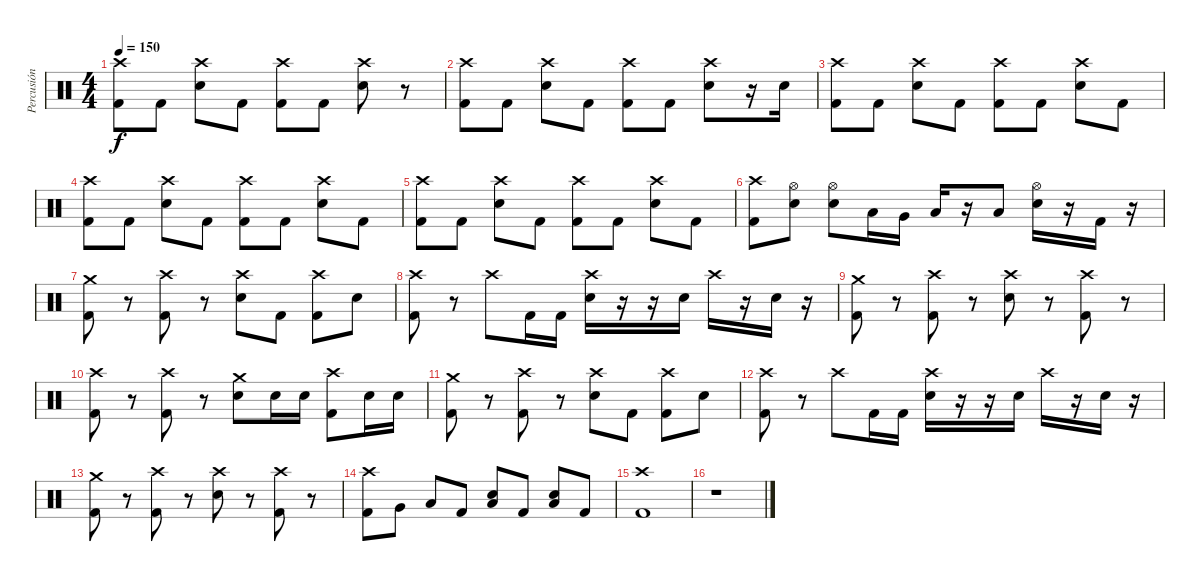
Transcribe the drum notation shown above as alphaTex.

\track ("Percusión" "Percusión") {instrument percussion}
\staff {score}
\articulation defaults
\ts (4 4)
\tempo 150
\clef neutral
\ks c
("Kick (hit) 2" "Crash high (hit)").8{dy f} "Kick (hit) 2".8 ("Electric Snare (hit)" "Crash high (hit)").8 "Kick (hit) 2".8 ("Kick (hit) 2" "Crash high (hit)").8 "Kick (hit) 2".8 ("Electric Snare (hit)" "Crash high (hit)").8 r.8 |
("Kick (hit) 2" "Crash high (hit)").8 "Kick (hit) 2".8 ("Electric Snare (hit)" "Crash high (hit)").8 "Kick (hit) 2".8 ("Kick (hit) 2" "Crash high (hit)").8 "Kick (hit) 2".8 ("Electric Snare (hit)" "Crash high (hit)").8 r.16 "Electric Snare (hit)".16 |
("Kick (hit) 2" "Crash high (hit)").8 "Kick (hit) 2".8 ("Electric Snare (hit)" "Crash high (hit)").8 "Kick (hit) 2".8 ("Kick (hit) 2" "Crash high (hit)").8 "Kick (hit) 2".8 ("Electric Snare (hit)" "Crash high (hit)").8 "Kick (hit) 2".8 |
("Kick (hit) 2" "Crash high (hit)").8 "Kick (hit) 2".8 ("Electric Snare (hit)" "Crash high (hit)").8 "Kick (hit) 2".8 ("Kick (hit) 2" "Crash high (hit)").8 "Kick (hit) 2".8 ("Electric Snare (hit)" "Crash high (hit)").8 "Kick (hit) 2".8 |
("Kick (hit) 2" "Crash high (hit)").8 "Kick (hit) 2".8 ("Electric Snare (hit)" "Crash high (hit)").8 "Kick (hit) 2".8 ("Kick (hit) 2" "Crash high (hit)").8 "Kick (hit) 2".8 ("Electric Snare (hit)" "Crash high (hit)").8 "Kick (hit) 2".8 |
("Kick (hit) 2" "Crash high (hit)").8 ("Electric Snare (hit)" "Hi-Hat (open)").8 ("Electric Snare (hit)" "Hi-Hat (open)").8 "Low Floor Tom (hit)".16 "Very Low Tom (hit)".16 "Low Floor Tom (hit)".16 r.16 "Low Floor Tom (hit)".8 ("Electric Snare (hit)" "Hi-Hat (open)").16 r.16 "Kick (hit) 2".16 r.16 |
("Kick (hit) 2" "Crash medium (hit)").8 r.8 ("Kick (hit) 2" "Crash high (hit)").8 r.8 ("Electric Snare (hit)" "Crash high (hit)").8 "Kick (hit) 2".8 ("Kick (hit) 2" "Crash high (hit)").8 "Electric Snare (hit)".8 |
("Kick (hit) 2" "Crash high (hit)").8 r.8 "Crash high (hit)".8 "Kick (hit) 2".16 "Kick (hit) 2".16 ("Electric Snare (hit)" "Crash high (hit)").16 r.16 r.16 "Electric Snare (hit)".16 "Crash high (hit)".16 r.16 "Electric Snare (hit)".16 r.16 |
("Kick (hit) 2" "Crash medium (hit)").8 r.8 ("Kick (hit) 2" "Crash high (hit)").8 r.8 ("Electric Snare (hit)" "Crash high (hit)").8 r.8 ("Kick (hit) 2" "Crash high (hit)").8 r.8 |
("Kick (hit) 2" "Crash high (hit)").8 r.8 ("Kick (hit) 2" "Crash high (hit)").8 r.8 ("Electric Snare (hit)" "Crash medium (hit)").8 "Electric Snare (hit)".16 "Electric Snare (hit)".16 ("Kick (hit) 2" "Crash high (hit)").8 "Electric Snare (hit)".16 "Electric Snare (hit)".16 |
("Kick (hit) 2" "Crash medium (hit)").8 r.8 ("Kick (hit) 2" "Crash high (hit)").8 r.8 ("Electric Snare (hit)" "Crash high (hit)").8 "Kick (hit) 2".8 ("Kick (hit) 2" "Crash high (hit)").8 "Electric Snare (hit)".8 |
("Kick (hit) 2" "Crash high (hit)").8 r.8 "Crash high (hit)".8 "Kick (hit) 2".16 "Kick (hit) 2".16 ("Electric Snare (hit)" "Crash high (hit)").16 r.16 r.16 "Electric Snare (hit)".16 "Crash high (hit)".16 r.16 "Electric Snare (hit)".16 r.16 |
("Kick (hit) 2" "Crash medium (hit)").8 r.8 ("Kick (hit) 2" "Crash high (hit)").8 r.8 ("Electric Snare (hit)" "Crash high (hit)").8 r.8 ("Kick (hit) 2" "Crash high (hit)").8 r.8 |
("Kick (hit) 2" "Crash high (hit)").8 "Very Low Tom (hit)".8 "Low Floor Tom (hit)".8 "Kick (hit) 2".8 ("Electric Snare (hit)" "Low Floor Tom (hit)").8 "Kick (hit) 2".8 ("Electric Snare (hit)" "Low Floor Tom (hit)").8 "Kick (hit) 2".8 |
("Kick (hit) 2" "Crash high (hit)").1 |
r.1
